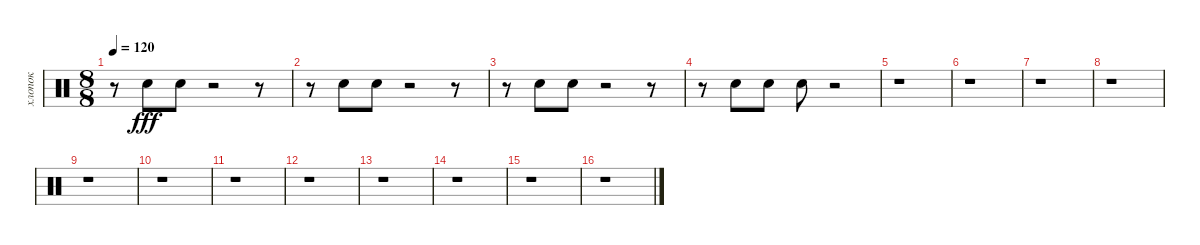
\track ("хлопок" "хлопок") {instrument percussion}
\staff {score}
\articulation defaults
\ts (8 8)
\tempo 120
\clef neutral
\ks c
r.8{dy fff} "Hand Clap (hit)".8 "Hand Clap (hit)".8 r.2 r.8 |
r.8 "Hand Clap (hit)".8 "Hand Clap (hit)".8 r.2 r.8 |
r.8 "Hand Clap (hit)".8 "Hand Clap (hit)".8 r.2 r.8 |
r.8 "Hand Clap (hit)".8 "Hand Clap (hit)".8 "Hand Clap (hit)".8 r.2 |
r.1 |
r.1 |
r.1 |
r.1 |
r.1 |
r.1 |
r.1 |
r.1 |
r.1 |
r.1 |
r.1 |
r.1
